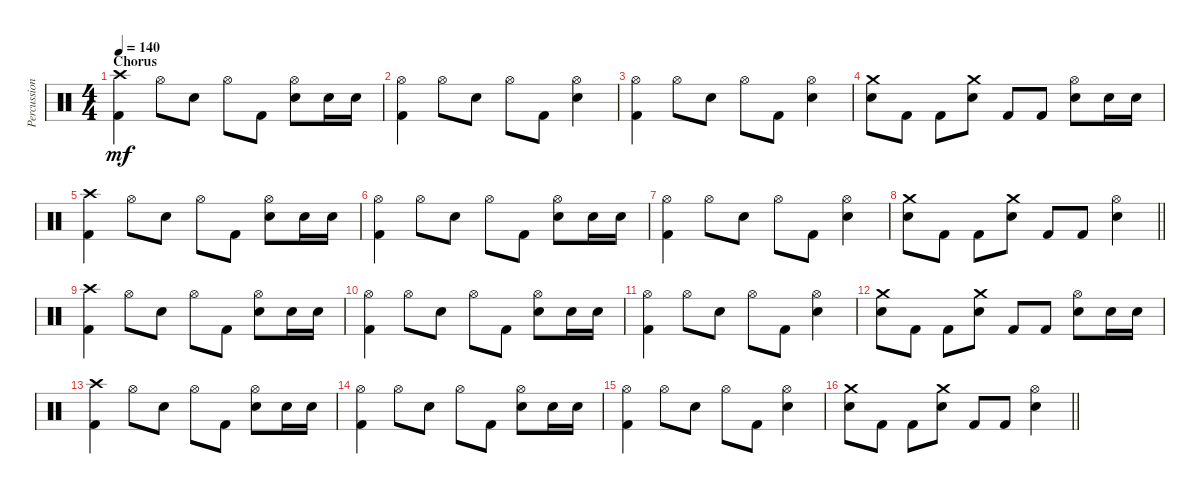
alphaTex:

\track ("Percussion" "Percussion") {instrument percussion}
\staff {score}
\articulation defaults
\ts (4 4)
\section ("" "Chorus")
\tempo 140
\clef neutral
\ks c
("Crash high (hit)" "Kick (hit) 2").4{dy mf} "Hi-Hat (open)".8 "Snare (hit) 2".8 "Hi-Hat (open)".8 "Kick (hit) 2".8 ("Hi-Hat (open)" "Snare (hit) 2").8 "Snare (hit) 2".16 "Snare (hit) 2".16 |
("Hi-Hat (open)" "Kick (hit) 2").4 "Hi-Hat (open)".8 "Snare (hit) 2".8 "Hi-Hat (open)".8 "Kick (hit) 2".8 ("Hi-Hat (open)" "Snare (hit) 2").4 |
("Hi-Hat (open)" "Kick (hit) 2").4 "Hi-Hat (open)".8 "Snare (hit) 2".8 "Hi-Hat (open)".8 "Kick (hit) 2".8 ("Hi-Hat (open)" "Snare (hit) 2").4 |
("Crash medium (hit)" "Snare (hit) 2").8 "Kick (hit) 2".8 "Kick (hit) 2".8 ("Crash medium (hit)" "Snare (hit) 2").8 "Kick (hit) 2".8 "Kick (hit) 2".8 ("Hi-Hat (open)" "Snare (hit) 2").8 "Snare (hit) 2".16 "Snare (hit) 2".16 |
("Crash high (hit)" "Kick (hit) 2").4 "Hi-Hat (open)".8 "Snare (hit) 2".8 "Hi-Hat (open)".8 "Kick (hit) 2".8 ("Hi-Hat (open)" "Snare (hit) 2").8 "Snare (hit) 2".16 "Snare (hit) 2".16 |
("Hi-Hat (open)" "Kick (hit) 2").4 "Hi-Hat (open)".8 "Snare (hit) 2".8 "Hi-Hat (open)".8 "Kick (hit) 2".8 ("Hi-Hat (open)" "Snare (hit) 2").8 "Snare (hit) 2".16 "Snare (hit) 2".16 |
("Hi-Hat (open)" "Kick (hit) 2").4 "Hi-Hat (open)".8 "Snare (hit) 2".8 "Hi-Hat (open)".8 "Kick (hit) 2".8 ("Hi-Hat (open)" "Snare (hit) 2").4 |
\barLineRight lightlight
("Crash medium (hit)" "Snare (hit) 2").8 "Kick (hit) 2".8 "Kick (hit) 2".8 ("Crash medium (hit)" "Snare (hit) 2").8 "Kick (hit) 2".8 "Kick (hit) 2".8 ("Hi-Hat (open)" "Snare (hit) 2").4 |
("Crash high (hit)" "Kick (hit) 2").4 "Hi-Hat (open)".8 "Snare (hit) 2".8 "Hi-Hat (open)".8 "Kick (hit) 2".8 ("Hi-Hat (open)" "Snare (hit) 2").8 "Snare (hit) 2".16 "Snare (hit) 2".16 |
("Hi-Hat (open)" "Kick (hit) 2").4 "Hi-Hat (open)".8 "Snare (hit) 2".8 "Hi-Hat (open)".8 "Kick (hit) 2".8 ("Hi-Hat (open)" "Snare (hit) 2").8 "Snare (hit) 2".16 "Snare (hit) 2".16 |
("Hi-Hat (open)" "Kick (hit) 2").4 "Hi-Hat (open)".8 "Snare (hit) 2".8 "Hi-Hat (open)".8 "Kick (hit) 2".8 ("Hi-Hat (open)" "Snare (hit) 2").4 |
("Crash medium (hit)" "Snare (hit) 2").8 "Kick (hit) 2".8 "Kick (hit) 2".8 ("Crash medium (hit)" "Snare (hit) 2").8 "Kick (hit) 2".8 "Kick (hit) 2".8 ("Hi-Hat (open)" "Snare (hit) 2").8 "Snare (hit) 2".16 "Snare (hit) 2".16 |
("Crash high (hit)" "Kick (hit) 2").4 "Hi-Hat (open)".8 "Snare (hit) 2".8 "Hi-Hat (open)".8 "Kick (hit) 2".8 ("Hi-Hat (open)" "Snare (hit) 2").8 "Snare (hit) 2".16 "Snare (hit) 2".16 |
("Hi-Hat (open)" "Kick (hit) 2").4 "Hi-Hat (open)".8 "Snare (hit) 2".8 "Hi-Hat (open)".8 "Kick (hit) 2".8 ("Hi-Hat (open)" "Snare (hit) 2").8 "Snare (hit) 2".16 "Snare (hit) 2".16 |
("Hi-Hat (open)" "Kick (hit) 2").4 "Hi-Hat (open)".8 "Snare (hit) 2".8 "Hi-Hat (open)".8 "Kick (hit) 2".8 ("Hi-Hat (open)" "Snare (hit) 2").4 |
\barLineRight lightlight
("Crash medium (hit)" "Snare (hit) 2").8 "Kick (hit) 2".8 "Kick (hit) 2".8 ("Crash medium (hit)" "Snare (hit) 2").8 "Kick (hit) 2".8 "Kick (hit) 2".8 ("Hi-Hat (open)" "Snare (hit) 2").4
